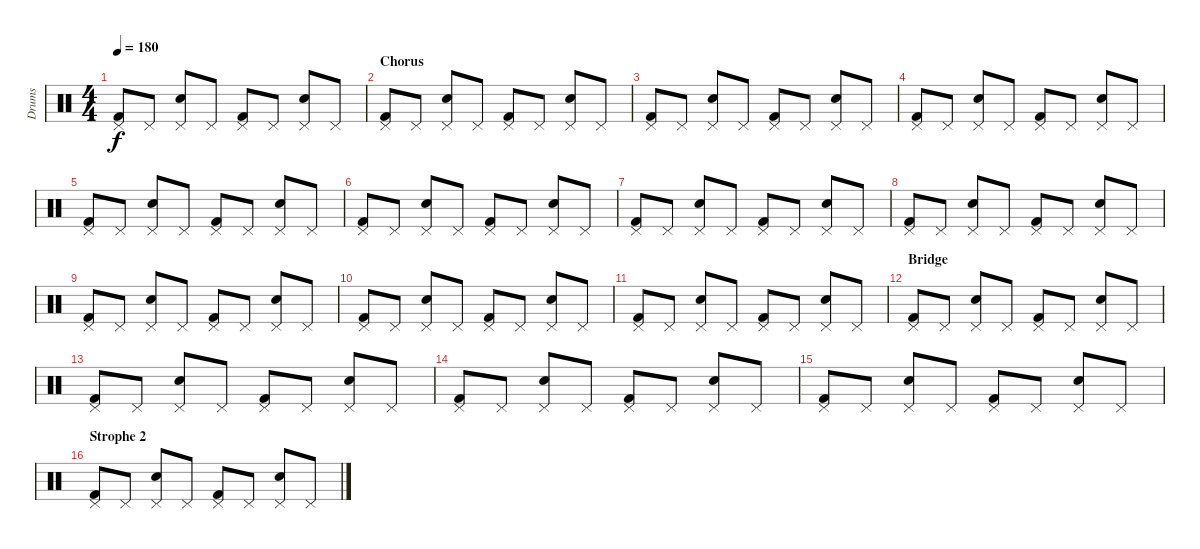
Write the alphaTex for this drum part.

\track ("Drums" "Drums") {instrument percussion}
\staff {score}
\articulation defaults
\ts (4 4)
\tempo 180
\clef neutral
\ks c
("Pedal Hi-Hat (hit)" "Kick (hit) 2").8{dy f} "Pedal Hi-Hat (hit)".8 ("Pedal Hi-Hat (hit)" "Electric Snare (hit)").8 "Pedal Hi-Hat (hit)".8 ("Pedal Hi-Hat (hit)" "Kick (hit) 2").8 "Pedal Hi-Hat (hit)".8 ("Pedal Hi-Hat (hit)" "Electric Snare (hit)").8 "Pedal Hi-Hat (hit)".8 |
\section ("" "Chorus")
("Pedal Hi-Hat (hit)" "Kick (hit) 2").8 "Pedal Hi-Hat (hit)".8 ("Pedal Hi-Hat (hit)" "Electric Snare (hit)").8 "Pedal Hi-Hat (hit)".8 ("Pedal Hi-Hat (hit)" "Kick (hit) 2").8 "Pedal Hi-Hat (hit)".8 ("Pedal Hi-Hat (hit)" "Electric Snare (hit)").8 "Pedal Hi-Hat (hit)".8 |
("Pedal Hi-Hat (hit)" "Kick (hit) 2").8 "Pedal Hi-Hat (hit)".8 ("Pedal Hi-Hat (hit)" "Electric Snare (hit)").8 "Pedal Hi-Hat (hit)".8 ("Pedal Hi-Hat (hit)" "Kick (hit) 2").8 "Pedal Hi-Hat (hit)".8 ("Pedal Hi-Hat (hit)" "Electric Snare (hit)").8 "Pedal Hi-Hat (hit)".8 |
("Pedal Hi-Hat (hit)" "Kick (hit) 2").8 "Pedal Hi-Hat (hit)".8 ("Pedal Hi-Hat (hit)" "Electric Snare (hit)").8 "Pedal Hi-Hat (hit)".8 ("Pedal Hi-Hat (hit)" "Kick (hit) 2").8 "Pedal Hi-Hat (hit)".8 ("Pedal Hi-Hat (hit)" "Electric Snare (hit)").8 "Pedal Hi-Hat (hit)".8 |
("Pedal Hi-Hat (hit)" "Kick (hit) 2").8 "Pedal Hi-Hat (hit)".8 ("Pedal Hi-Hat (hit)" "Electric Snare (hit)").8 "Pedal Hi-Hat (hit)".8 ("Pedal Hi-Hat (hit)" "Kick (hit) 2").8 "Pedal Hi-Hat (hit)".8 ("Pedal Hi-Hat (hit)" "Electric Snare (hit)").8 "Pedal Hi-Hat (hit)".8 |
("Pedal Hi-Hat (hit)" "Kick (hit) 2").8 "Pedal Hi-Hat (hit)".8 ("Pedal Hi-Hat (hit)" "Electric Snare (hit)").8 "Pedal Hi-Hat (hit)".8 ("Pedal Hi-Hat (hit)" "Kick (hit) 2").8 "Pedal Hi-Hat (hit)".8 ("Pedal Hi-Hat (hit)" "Electric Snare (hit)").8 "Pedal Hi-Hat (hit)".8 |
("Pedal Hi-Hat (hit)" "Kick (hit) 2").8 "Pedal Hi-Hat (hit)".8 ("Pedal Hi-Hat (hit)" "Electric Snare (hit)").8 "Pedal Hi-Hat (hit)".8 ("Pedal Hi-Hat (hit)" "Kick (hit) 2").8 "Pedal Hi-Hat (hit)".8 ("Pedal Hi-Hat (hit)" "Electric Snare (hit)").8 "Pedal Hi-Hat (hit)".8 |
("Pedal Hi-Hat (hit)" "Kick (hit) 2").8 "Pedal Hi-Hat (hit)".8 ("Pedal Hi-Hat (hit)" "Electric Snare (hit)").8 "Pedal Hi-Hat (hit)".8 ("Pedal Hi-Hat (hit)" "Kick (hit) 2").8 "Pedal Hi-Hat (hit)".8 ("Pedal Hi-Hat (hit)" "Electric Snare (hit)").8 "Pedal Hi-Hat (hit)".8 |
("Pedal Hi-Hat (hit)" "Kick (hit) 2").8 "Pedal Hi-Hat (hit)".8 ("Pedal Hi-Hat (hit)" "Electric Snare (hit)").8 "Pedal Hi-Hat (hit)".8 ("Pedal Hi-Hat (hit)" "Kick (hit) 2").8 "Pedal Hi-Hat (hit)".8 ("Pedal Hi-Hat (hit)" "Electric Snare (hit)").8 "Pedal Hi-Hat (hit)".8 |
("Pedal Hi-Hat (hit)" "Kick (hit) 2").8 "Pedal Hi-Hat (hit)".8 ("Pedal Hi-Hat (hit)" "Electric Snare (hit)").8 "Pedal Hi-Hat (hit)".8 ("Pedal Hi-Hat (hit)" "Kick (hit) 2").8 "Pedal Hi-Hat (hit)".8 ("Pedal Hi-Hat (hit)" "Electric Snare (hit)").8 "Pedal Hi-Hat (hit)".8 |
("Pedal Hi-Hat (hit)" "Kick (hit) 2").8 "Pedal Hi-Hat (hit)".8 ("Pedal Hi-Hat (hit)" "Electric Snare (hit)").8 "Pedal Hi-Hat (hit)".8 ("Pedal Hi-Hat (hit)" "Kick (hit) 2").8 "Pedal Hi-Hat (hit)".8 ("Pedal Hi-Hat (hit)" "Electric Snare (hit)").8 "Pedal Hi-Hat (hit)".8 |
\section ("" "Bridge")
("Pedal Hi-Hat (hit)" "Kick (hit) 2").8 "Pedal Hi-Hat (hit)".8 ("Pedal Hi-Hat (hit)" "Electric Snare (hit)").8 "Pedal Hi-Hat (hit)".8 ("Pedal Hi-Hat (hit)" "Kick (hit) 2").8 "Pedal Hi-Hat (hit)".8 ("Pedal Hi-Hat (hit)" "Electric Snare (hit)").8 "Pedal Hi-Hat (hit)".8 |
("Pedal Hi-Hat (hit)" "Kick (hit) 2").8 "Pedal Hi-Hat (hit)".8 ("Pedal Hi-Hat (hit)" "Electric Snare (hit)").8 "Pedal Hi-Hat (hit)".8 ("Pedal Hi-Hat (hit)" "Kick (hit) 2").8 "Pedal Hi-Hat (hit)".8 ("Pedal Hi-Hat (hit)" "Electric Snare (hit)").8 "Pedal Hi-Hat (hit)".8 |
("Pedal Hi-Hat (hit)" "Kick (hit) 2").8 "Pedal Hi-Hat (hit)".8 ("Pedal Hi-Hat (hit)" "Electric Snare (hit)").8 "Pedal Hi-Hat (hit)".8 ("Pedal Hi-Hat (hit)" "Kick (hit) 2").8 "Pedal Hi-Hat (hit)".8 ("Pedal Hi-Hat (hit)" "Electric Snare (hit)").8 "Pedal Hi-Hat (hit)".8 |
("Pedal Hi-Hat (hit)" "Kick (hit) 2").8 "Pedal Hi-Hat (hit)".8 ("Pedal Hi-Hat (hit)" "Electric Snare (hit)").8 "Pedal Hi-Hat (hit)".8 ("Pedal Hi-Hat (hit)" "Kick (hit) 2").8 "Pedal Hi-Hat (hit)".8 ("Pedal Hi-Hat (hit)" "Electric Snare (hit)").8 "Pedal Hi-Hat (hit)".8 |
\section ("" "Strophe 2")
("Pedal Hi-Hat (hit)" "Kick (hit) 2").8 "Pedal Hi-Hat (hit)".8 ("Pedal Hi-Hat (hit)" "Electric Snare (hit)").8 "Pedal Hi-Hat (hit)".8 ("Pedal Hi-Hat (hit)" "Kick (hit) 2").8 "Pedal Hi-Hat (hit)".8 ("Pedal Hi-Hat (hit)" "Electric Snare (hit)").8 "Pedal Hi-Hat (hit)".8
